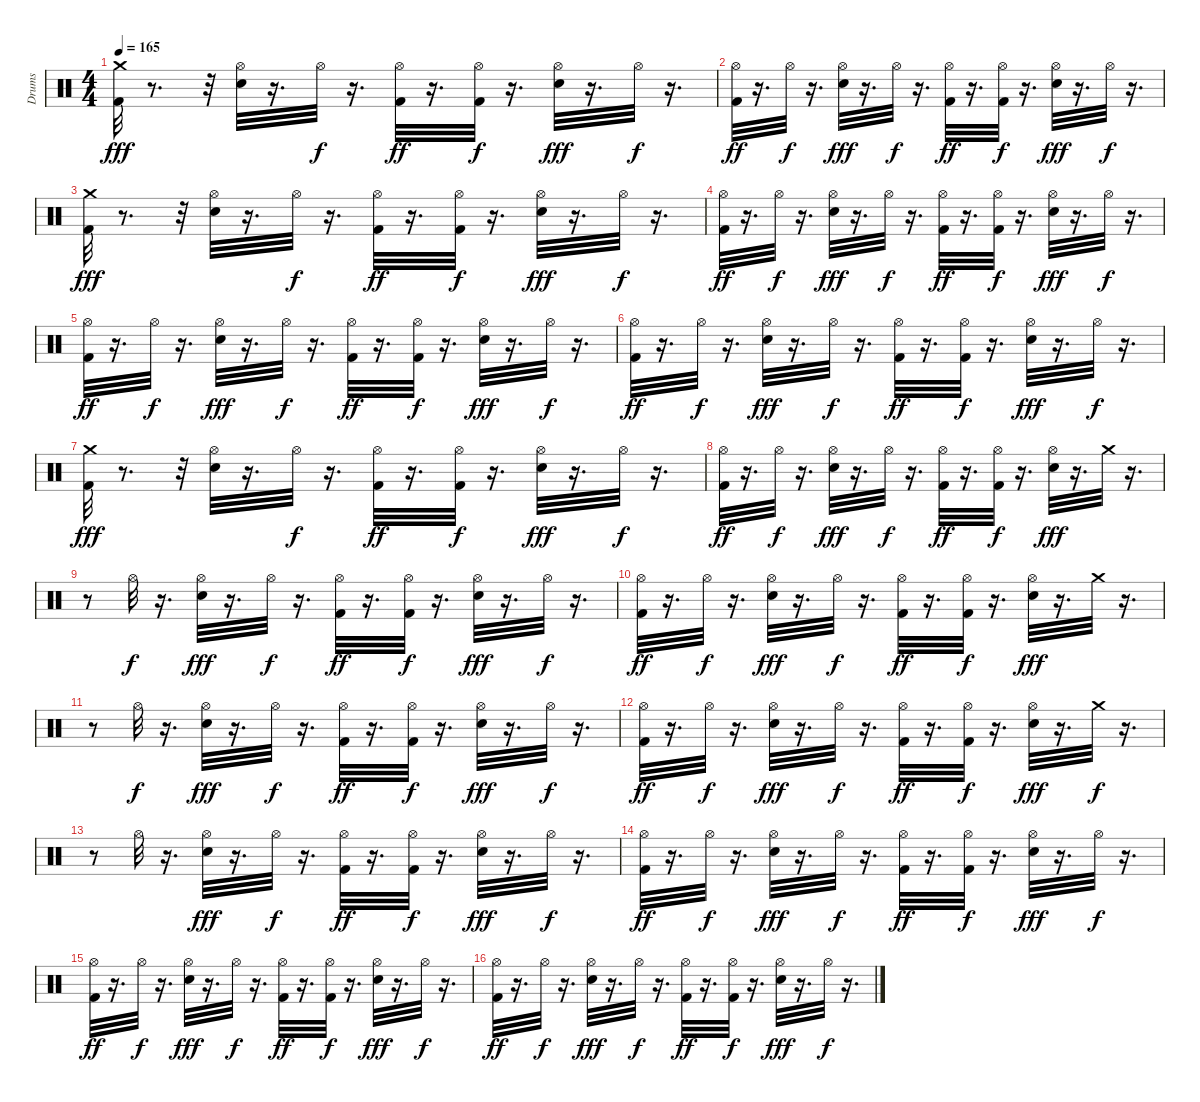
\track ("Drums" "Drums") {instrument percussion}
\staff {score}
\articulation defaults
\ts (4 4)
\tempo 165
\clef neutral
\ks c
("Kick (hit) 2" "Crash medium (hit)").32{dy fff} r.8{d} r.32 ("Snare (hit) 2" "Hi-Hat (open)").32 r.16{d} "Hi-Hat (open)".32{dy f} r.16{d} ("Kick (hit) 2" "Hi-Hat (open)").32{dy ff} r.16{d} ("Kick (hit) 2" "Hi-Hat (open)").32{dy f} r.16{d} ("Snare (hit) 2" "Hi-Hat (open)").32{dy fff} r.16{d} "Hi-Hat (open)".32{dy f} r.16{d} |
("Kick (hit) 2" "Hi-Hat (open)").32{dy ff} r.16{d} "Hi-Hat (open)".32{dy f} r.16{d} ("Snare (hit) 2" "Hi-Hat (open)").32{dy fff} r.16{d} "Hi-Hat (open)".32{dy f} r.16{d} ("Kick (hit) 2" "Hi-Hat (open)").32{dy ff} r.16{d} ("Kick (hit) 2" "Hi-Hat (open)").32{dy f} r.16{d} ("Snare (hit) 2" "Hi-Hat (open)").32{dy fff} r.16{d} "Hi-Hat (open)".32{dy f} r.16{d} |
("Kick (hit) 2" "Crash medium (hit)").32{dy fff} r.8{d} r.32 ("Snare (hit) 2" "Hi-Hat (open)").32 r.16{d} "Hi-Hat (open)".32{dy f} r.16{d} ("Kick (hit) 2" "Hi-Hat (open)").32{dy ff} r.16{d} ("Kick (hit) 2" "Hi-Hat (open)").32{dy f} r.16{d} ("Snare (hit) 2" "Hi-Hat (open)").32{dy fff} r.16{d} "Hi-Hat (open)".32{dy f} r.16{d} |
("Kick (hit) 2" "Hi-Hat (open)").32{dy ff} r.16{d} "Hi-Hat (open)".32{dy f} r.16{d} ("Snare (hit) 2" "Hi-Hat (open)").32{dy fff} r.16{d} "Hi-Hat (open)".32{dy f} r.16{d} ("Kick (hit) 2" "Hi-Hat (open)").32{dy ff} r.16{d} ("Kick (hit) 2" "Hi-Hat (open)").32{dy f} r.16{d} ("Snare (hit) 2" "Hi-Hat (open)").32{dy fff} r.16{d} "Hi-Hat (open)".32{dy f} r.16{d} |
("Kick (hit) 2" "Hi-Hat (open)").32{dy ff} r.16{d} "Hi-Hat (open)".32{dy f} r.16{d} ("Snare (hit) 2" "Hi-Hat (open)").32{dy fff} r.16{d} "Hi-Hat (open)".32{dy f} r.16{d} ("Kick (hit) 2" "Hi-Hat (open)").32{dy ff} r.16{d} ("Kick (hit) 2" "Hi-Hat (open)").32{dy f} r.16{d} ("Snare (hit) 2" "Hi-Hat (open)").32{dy fff} r.16{d} "Hi-Hat (open)".32{dy f} r.16{d} |
("Kick (hit) 2" "Hi-Hat (open)").32{dy ff} r.16{d} "Hi-Hat (open)".32{dy f} r.16{d} ("Snare (hit) 2" "Hi-Hat (open)").32{dy fff} r.16{d} "Hi-Hat (open)".32{dy f} r.16{d} ("Kick (hit) 2" "Hi-Hat (open)").32{dy ff} r.16{d} ("Kick (hit) 2" "Hi-Hat (open)").32{dy f} r.16{d} ("Snare (hit) 2" "Hi-Hat (open)").32{dy fff} r.16{d} "Hi-Hat (open)".32{dy f} r.16{d} |
("Kick (hit) 2" "Crash medium (hit)").32{dy fff} r.8{d} r.32 ("Snare (hit) 2" "Hi-Hat (open)").32 r.16{d} "Hi-Hat (open)".32{dy f} r.16{d} ("Kick (hit) 2" "Hi-Hat (open)").32{dy ff} r.16{d} ("Kick (hit) 2" "Hi-Hat (open)").32{dy f} r.16{d} ("Snare (hit) 2" "Hi-Hat (open)").32{dy fff} r.16{d} "Hi-Hat (open)".32{dy f} r.16{d} |
("Kick (hit) 2" "Hi-Hat (open)").32{dy ff} r.16{d} "Hi-Hat (open)".32{dy f} r.16{d} ("Snare (hit) 2" "Hi-Hat (open)").32{dy fff} r.16{d} "Hi-Hat (open)".32{dy f} r.16{d} ("Kick (hit) 2" "Hi-Hat (open)").32{dy ff} r.16{d} ("Kick (hit) 2" "Hi-Hat (open)").32{dy f} r.16{d} ("Snare (hit) 2" "Hi-Hat (open)").32{dy fff} r.16{d} "Crash medium (hit)".32 r.16{d} |
r.8 "Hi-Hat (open)".32{dy f} r.16{d} ("Snare (hit) 2" "Hi-Hat (open)").32{dy fff} r.16{d} "Hi-Hat (open)".32{dy f} r.16{d} ("Kick (hit) 2" "Hi-Hat (open)").32{dy ff} r.16{d} ("Kick (hit) 2" "Hi-Hat (open)").32{dy f} r.16{d} ("Snare (hit) 2" "Hi-Hat (open)").32{dy fff} r.16{d} "Hi-Hat (open)".32{dy f} r.16{d} |
("Kick (hit) 2" "Hi-Hat (open)").32{dy ff} r.16{d} "Hi-Hat (open)".32{dy f} r.16{d} ("Snare (hit) 2" "Hi-Hat (open)").32{dy fff} r.16{d} "Hi-Hat (open)".32{dy f} r.16{d} ("Kick (hit) 2" "Hi-Hat (open)").32{dy ff} r.16{d} ("Kick (hit) 2" "Hi-Hat (open)").32{dy f} r.16{d} ("Snare (hit) 2" "Hi-Hat (open)").32{dy fff} r.16{d} "Crash medium (hit)".32 r.16{d} |
r.8 "Hi-Hat (open)".32{dy f} r.16{d} ("Snare (hit) 2" "Hi-Hat (open)").32{dy fff} r.16{d} "Hi-Hat (open)".32{dy f} r.16{d} ("Kick (hit) 2" "Hi-Hat (open)").32{dy ff} r.16{d} ("Kick (hit) 2" "Hi-Hat (open)").32{dy f} r.16{d} ("Snare (hit) 2" "Hi-Hat (open)").32{dy fff} r.16{d} "Hi-Hat (open)".32{dy f} r.16{d} |
("Kick (hit) 2" "Hi-Hat (open)").32{dy ff} r.16{d} "Hi-Hat (open)".32{dy f} r.16{d} ("Snare (hit) 2" "Hi-Hat (open)").32{dy fff} r.16{d} "Hi-Hat (open)".32{dy f} r.16{d} ("Kick (hit) 2" "Hi-Hat (open)").32{dy ff} r.16{d} ("Kick (hit) 2" "Hi-Hat (open)").32{dy f} r.16{d} ("Snare (hit) 2" "Hi-Hat (open)").32{dy fff} r.16{d} "Crash medium (hit)".32{dy f} r.16{d} |
r.8 "Hi-Hat (open)".32 r.16{d} ("Snare (hit) 2" "Hi-Hat (open)").32{dy fff} r.16{d} "Hi-Hat (open)".32{dy f} r.16{d} ("Kick (hit) 2" "Hi-Hat (open)").32{dy ff} r.16{d} ("Kick (hit) 2" "Hi-Hat (open)").32{dy f} r.16{d} ("Snare (hit) 2" "Hi-Hat (open)").32{dy fff} r.16{d} "Hi-Hat (open)".32{dy f} r.16{d} |
("Kick (hit) 2" "Hi-Hat (open)").32{dy ff} r.16{d} "Hi-Hat (open)".32{dy f} r.16{d} ("Snare (hit) 2" "Hi-Hat (open)").32{dy fff} r.16{d} "Hi-Hat (open)".32{dy f} r.16{d} ("Kick (hit) 2" "Hi-Hat (open)").32{dy ff} r.16{d} ("Kick (hit) 2" "Hi-Hat (open)").32{dy f} r.16{d} ("Snare (hit) 2" "Hi-Hat (open)").32{dy fff} r.16{d} "Hi-Hat (open)".32{dy f} r.16{d} |
("Kick (hit) 2" "Hi-Hat (open)").32{dy ff} r.16{d} "Hi-Hat (open)".32{dy f} r.16{d} ("Snare (hit) 2" "Hi-Hat (open)").32{dy fff} r.16{d} "Hi-Hat (open)".32{dy f} r.16{d} ("Kick (hit) 2" "Hi-Hat (open)").32{dy ff} r.16{d} ("Kick (hit) 2" "Hi-Hat (open)").32{dy f} r.16{d} ("Snare (hit) 2" "Hi-Hat (open)").32{dy fff} r.16{d} "Hi-Hat (open)".32{dy f} r.16{d} |
("Kick (hit) 2" "Hi-Hat (open)").32{dy ff} r.16{d} "Hi-Hat (open)".32{dy f} r.16{d} ("Snare (hit) 2" "Hi-Hat (open)").32{dy fff} r.16{d} "Hi-Hat (open)".32{dy f} r.16{d} ("Kick (hit) 2" "Hi-Hat (open)").32{dy ff} r.16{d} ("Kick (hit) 2" "Hi-Hat (open)").32{dy f} r.16{d} ("Snare (hit) 2" "Hi-Hat (open)").32{dy fff} r.16{d} "Hi-Hat (open)".32{dy f} r.16{d}
